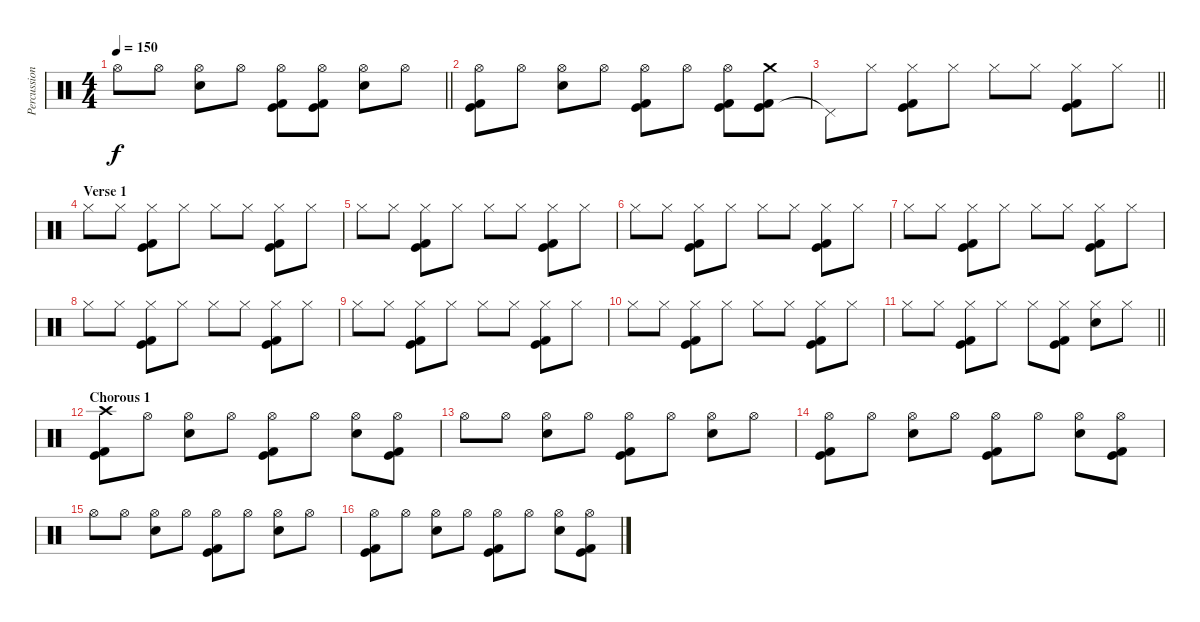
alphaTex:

\track ("Percussion" "Percussion") {instrument percussion}
\staff {score}
\articulation defaults
\ts (4 4)
\tempo 150
\clef neutral
\barLineRight lightlight
\ks c "Hi-Hat (open)".8{dy f} "Hi-Hat (open)".8
("Electric Snare (hit)" "Hi-Hat (open)").8 "Hi-Hat (open)".8 ("Kick (hit)" "Kick (hit) 2" "Hi-Hat (open)").8 ("Kick (hit)" "Kick (hit) 2" "Hi-Hat (open)").8 ("Electric Snare (hit)" "Hi-Hat (open)").8 "Hi-Hat (open)".8 |
\section ("" "")
("Kick (hit)" "Kick (hit) 2" "Hi-Hat (open)").8 "Hi-Hat (open)".8 ("Electric Snare (hit)" "Hi-Hat (open)").8 "Hi-Hat (open)".8 ("Kick (hit)" "Kick (hit) 2" "Hi-Hat (open)").8 "Hi-Hat (open)".8 ("Kick (hit)" "Kick (hit) 2" "Hi-Hat (open)").8 ("Kick (hit)" "Kick (hit) 2" "Crash medium (hit)").8 |
\barLineRight lightlight "Pedal Hi-Hat (hit)"{t}.8 "Hi-Hat (closed)".8
("Kick (hit)" "Kick (hit) 2" "Hi-Hat (closed)").8 "Hi-Hat (closed)".8 "Hi-Hat (closed)".8 "Hi-Hat (closed)".8 ("Kick (hit)" "Kick (hit) 2" "Hi-Hat (closed)").8 "Hi-Hat (closed)".8 |
\section ("" "Verse 1")
"Hi-Hat (closed)".8 "Hi-Hat (closed)".8 ("Kick (hit)" "Kick (hit) 2" "Hi-Hat (closed)").8 "Hi-Hat (closed)".8 "Hi-Hat (closed)".8 "Hi-Hat (closed)".8 ("Kick (hit)" "Kick (hit) 2" "Hi-Hat (closed)").8 "Hi-Hat (closed)".8 |
"Hi-Hat (closed)".8 "Hi-Hat (closed)".8 ("Kick (hit)" "Kick (hit) 2" "Hi-Hat (closed)").8 "Hi-Hat (closed)".8 "Hi-Hat (closed)".8 "Hi-Hat (closed)".8 ("Kick (hit)" "Kick (hit) 2" "Hi-Hat (closed)").8 "Hi-Hat (closed)".8 |
"Hi-Hat (closed)".8 "Hi-Hat (closed)".8 ("Kick (hit)" "Kick (hit) 2" "Hi-Hat (closed)").8 "Hi-Hat (closed)".8 "Hi-Hat (closed)".8 "Hi-Hat (closed)".8 ("Kick (hit)" "Kick (hit) 2" "Hi-Hat (closed)").8 "Hi-Hat (closed)".8 |
"Hi-Hat (closed)".8 "Hi-Hat (closed)".8 ("Kick (hit)" "Kick (hit) 2" "Hi-Hat (closed)").8 "Hi-Hat (closed)".8 "Hi-Hat (closed)".8 "Hi-Hat (closed)".8 ("Kick (hit)" "Kick (hit) 2" "Hi-Hat (closed)").8 "Hi-Hat (closed)".8 |
"Hi-Hat (closed)".8 "Hi-Hat (closed)".8 ("Kick (hit)" "Kick (hit) 2" "Hi-Hat (closed)").8 "Hi-Hat (closed)".8 "Hi-Hat (closed)".8 "Hi-Hat (closed)".8 ("Kick (hit)" "Kick (hit) 2" "Hi-Hat (closed)").8 "Hi-Hat (closed)".8 |
"Hi-Hat (closed)".8 "Hi-Hat (closed)".8 ("Kick (hit)" "Kick (hit) 2" "Hi-Hat (closed)").8 "Hi-Hat (closed)".8 "Hi-Hat (closed)".8 "Hi-Hat (closed)".8 ("Kick (hit)" "Kick (hit) 2" "Hi-Hat (closed)").8 "Hi-Hat (closed)".8 |
"Hi-Hat (closed)".8 "Hi-Hat (closed)".8 ("Kick (hit)" "Kick (hit) 2" "Hi-Hat (closed)").8 "Hi-Hat (closed)".8 "Hi-Hat (closed)".8 "Hi-Hat (closed)".8 ("Kick (hit)" "Kick (hit) 2" "Hi-Hat (closed)").8 "Hi-Hat (closed)".8 |
\barLineRight lightlight "Hi-Hat (closed)".8 "Hi-Hat (closed)".8
("Kick (hit)" "Kick (hit) 2" "Hi-Hat (closed)").8 "Hi-Hat (closed)".8 "Hi-Hat (closed)".8 ("Kick (hit)" "Kick (hit) 2" "Hi-Hat (closed)").8 ("Electric Snare (hit)" "Hi-Hat (closed)").8 "Hi-Hat (closed)".8 |
\section ("" "Chorous 1")
("Kick (hit)" "Kick (hit) 2" "Crash high (hit)").8 "Hi-Hat (open)".8 ("Electric Snare (hit)" "Hi-Hat (open)").8 "Hi-Hat (open)".8 ("Kick (hit)" "Kick (hit) 2" "Hi-Hat (open)").8 "Hi-Hat (open)".8 ("Electric Snare (hit)" "Hi-Hat (open)").8 ("Kick (hit)" "Kick (hit) 2" "Hi-Hat (open)").8 |
"Hi-Hat (open)".8 "Hi-Hat (open)".8 ("Electric Snare (hit)" "Hi-Hat (open)").8 "Hi-Hat (open)".8 ("Kick (hit)" "Kick (hit) 2" "Hi-Hat (open)").8 "Hi-Hat (open)".8 ("Electric Snare (hit)" "Hi-Hat (open)").8 "Hi-Hat (open)".8 |
("Kick (hit)" "Kick (hit) 2" "Hi-Hat (open)").8 "Hi-Hat (open)".8 ("Electric Snare (hit)" "Hi-Hat (open)").8 "Hi-Hat (open)".8 ("Kick (hit)" "Kick (hit) 2" "Hi-Hat (open)").8 "Hi-Hat (open)".8 ("Electric Snare (hit)" "Hi-Hat (open)").8 ("Kick (hit)" "Kick (hit) 2" "Hi-Hat (open)").8 |
"Hi-Hat (open)".8 "Hi-Hat (open)".8 ("Electric Snare (hit)" "Hi-Hat (open)").8 "Hi-Hat (open)".8 ("Kick (hit)" "Kick (hit) 2" "Hi-Hat (open)").8 "Hi-Hat (open)".8 ("Electric Snare (hit)" "Hi-Hat (open)").8 "Hi-Hat (open)".8 |
("Kick (hit)" "Kick (hit) 2" "Hi-Hat (open)").8 "Hi-Hat (open)".8 ("Electric Snare (hit)" "Hi-Hat (open)").8 "Hi-Hat (open)".8 ("Kick (hit)" "Kick (hit) 2" "Hi-Hat (open)").8 "Hi-Hat (open)".8 ("Electric Snare (hit)" "Hi-Hat (open)").8 ("Kick (hit)" "Kick (hit) 2" "Hi-Hat (open)").8
